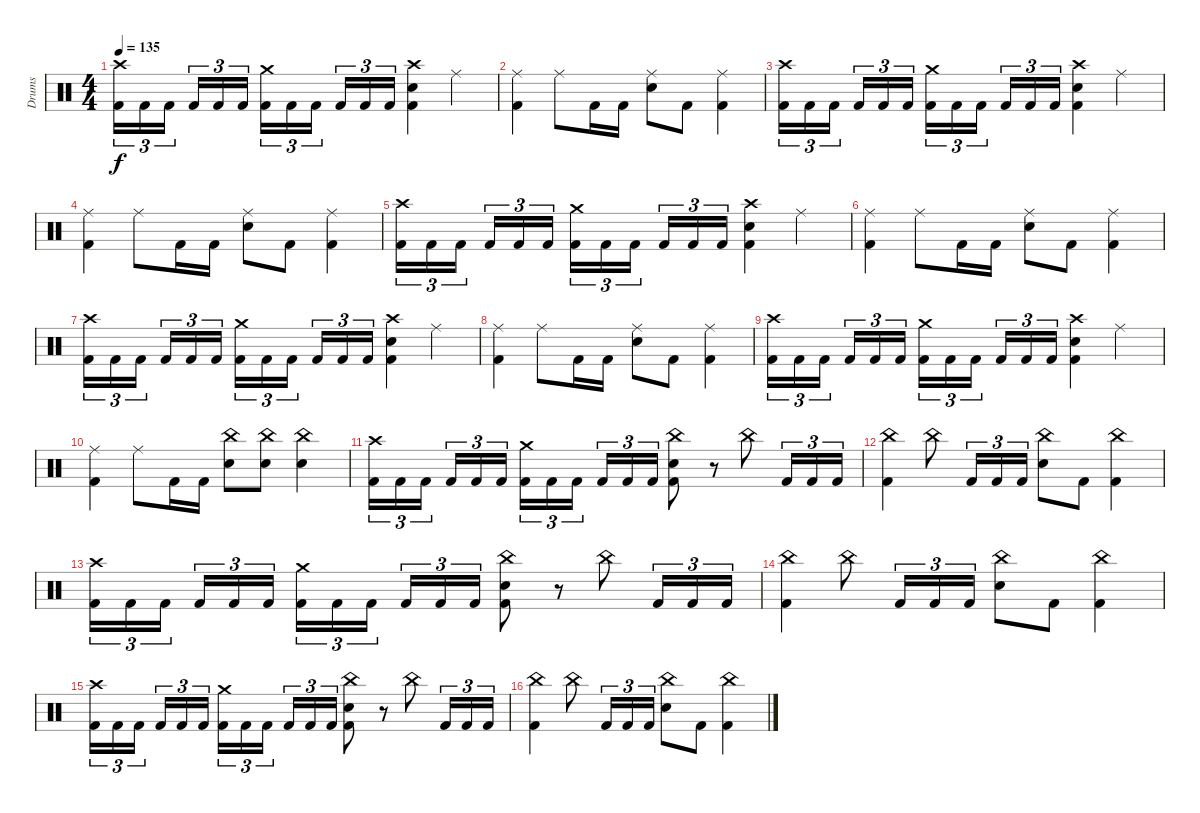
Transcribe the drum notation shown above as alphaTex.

\track ("Drums" "Drums") {instrument percussion}
\staff {score}
\articulation defaults
\ts (4 4)
\tempo 135
\clef neutral
\ks c
("Crash high (hit)" "Kick (hit) 2").16{tu (3 2) dy f} "Kick (hit) 2".16{tu (3 2)} "Kick (hit) 2".16{tu (3 2) beam splitsecondary} "Kick (hit) 2".16{tu (3 2)} "Kick (hit) 2".16{tu (3 2)} "Kick (hit) 2".16{tu (3 2)} ("Crash medium (hit)" "Kick (hit) 2").16{tu (3 2)} "Kick (hit) 2".16{tu (3 2)} "Kick (hit) 2".16{tu (3 2) beam splitsecondary} "Kick (hit) 2".16{tu (3 2)} "Kick (hit) 2".16{tu (3 2)} "Kick (hit) 2".16{tu (3 2)} ("Crash high (hit)" "Snare (hit) 2" "Kick (hit) 2").4 "Ride (middle)".4 |
("Ride (middle)" "Kick (hit) 2").4 "Ride (middle)".8 "Kick (hit) 2".16 "Kick (hit) 2".16 ("Ride (middle)" "Snare (hit) 2").8 "Kick (hit) 2".8 ("Ride (middle)" "Kick (hit) 2").4 |
("Crash high (hit)" "Kick (hit) 2").16{tu (3 2)} "Kick (hit) 2".16{tu (3 2)} "Kick (hit) 2".16{tu (3 2) beam splitsecondary} "Kick (hit) 2".16{tu (3 2)} "Kick (hit) 2".16{tu (3 2)} "Kick (hit) 2".16{tu (3 2)} ("Crash medium (hit)" "Kick (hit) 2").16{tu (3 2)} "Kick (hit) 2".16{tu (3 2)} "Kick (hit) 2".16{tu (3 2) beam splitsecondary} "Kick (hit) 2".16{tu (3 2)} "Kick (hit) 2".16{tu (3 2)} "Kick (hit) 2".16{tu (3 2)} ("Crash high (hit)" "Snare (hit) 2" "Kick (hit) 2").4 "Ride (middle)".4 |
("Ride (middle)" "Kick (hit) 2").4 "Ride (middle)".8 "Kick (hit) 2".16 "Kick (hit) 2".16 ("Ride (middle)" "Snare (hit) 2").8 "Kick (hit) 2".8 ("Ride (middle)" "Kick (hit) 2").4 |
("Crash high (hit)" "Kick (hit) 2").16{tu (3 2)} "Kick (hit) 2".16{tu (3 2)} "Kick (hit) 2".16{tu (3 2) beam splitsecondary} "Kick (hit) 2".16{tu (3 2)} "Kick (hit) 2".16{tu (3 2)} "Kick (hit) 2".16{tu (3 2)} ("Crash medium (hit)" "Kick (hit) 2").16{tu (3 2)} "Kick (hit) 2".16{tu (3 2)} "Kick (hit) 2".16{tu (3 2) beam splitsecondary} "Kick (hit) 2".16{tu (3 2)} "Kick (hit) 2".16{tu (3 2)} "Kick (hit) 2".16{tu (3 2)} ("Crash high (hit)" "Snare (hit) 2" "Kick (hit) 2").4 "Ride (middle)".4 |
("Ride (middle)" "Kick (hit) 2").4 "Ride (middle)".8 "Kick (hit) 2".16 "Kick (hit) 2".16 ("Ride (middle)" "Snare (hit) 2").8 "Kick (hit) 2".8 ("Ride (middle)" "Kick (hit) 2").4 |
("Crash high (hit)" "Kick (hit) 2").16{tu (3 2)} "Kick (hit) 2".16{tu (3 2)} "Kick (hit) 2".16{tu (3 2) beam splitsecondary} "Kick (hit) 2".16{tu (3 2)} "Kick (hit) 2".16{tu (3 2)} "Kick (hit) 2".16{tu (3 2)} ("Crash medium (hit)" "Kick (hit) 2").16{tu (3 2)} "Kick (hit) 2".16{tu (3 2)} "Kick (hit) 2".16{tu (3 2) beam splitsecondary} "Kick (hit) 2".16{tu (3 2)} "Kick (hit) 2".16{tu (3 2)} "Kick (hit) 2".16{tu (3 2)} ("Crash high (hit)" "Snare (hit) 2" "Kick (hit) 2").4 "Ride (middle)".4 |
("Ride (middle)" "Kick (hit) 2").4 "Ride (middle)".8 "Kick (hit) 2".16 "Kick (hit) 2".16 ("Ride (middle)" "Snare (hit) 2").8 "Kick (hit) 2".8 ("Ride (middle)" "Kick (hit) 2").4 |
("Crash high (hit)" "Kick (hit) 2").16{tu (3 2)} "Kick (hit) 2".16{tu (3 2)} "Kick (hit) 2".16{tu (3 2) beam splitsecondary} "Kick (hit) 2".16{tu (3 2)} "Kick (hit) 2".16{tu (3 2)} "Kick (hit) 2".16{tu (3 2)} ("Crash medium (hit)" "Kick (hit) 2").16{tu (3 2)} "Kick (hit) 2".16{tu (3 2)} "Kick (hit) 2".16{tu (3 2) beam splitsecondary} "Kick (hit) 2".16{tu (3 2)} "Kick (hit) 2".16{tu (3 2)} "Kick (hit) 2".16{tu (3 2)} ("Crash high (hit)" "Snare (hit) 2" "Kick (hit) 2").4 "Ride (middle)".4 |
("Ride (middle)" "Kick (hit) 2").4 "Ride (middle)".8 "Kick (hit) 2".16 "Kick (hit) 2".16 ("China (hit)" "Snare (hit) 2").8 ("China (hit)" "Snare (hit) 2").8 ("China (hit)" "Snare (hit) 2").4 |
("Crash high (hit)" "Kick (hit) 2").16{tu (3 2)} "Kick (hit) 2".16{tu (3 2)} "Kick (hit) 2".16{tu (3 2) beam splitsecondary} "Kick (hit) 2".16{tu (3 2)} "Kick (hit) 2".16{tu (3 2)} "Kick (hit) 2".16{tu (3 2)} ("Crash medium (hit)" "Kick (hit) 2").16{tu (3 2)} "Kick (hit) 2".16{tu (3 2)} "Kick (hit) 2".16{tu (3 2) beam splitsecondary} "Kick (hit) 2".16{tu (3 2)} "Kick (hit) 2".16{tu (3 2)} "Kick (hit) 2".16{tu (3 2)} ("China (hit)" "Snare (hit) 2" "Kick (hit) 2").8 r.8 "China (hit)".8 "Kick (hit) 2".16{tu (3 2)} "Kick (hit) 2".16{tu (3 2)} "Kick (hit) 2".16{tu (3 2)} |
("China (hit)" "Kick (hit) 2").4 "China (hit)".8 "Kick (hit) 2".16{tu (3 2)} "Kick (hit) 2".16{tu (3 2)} "Kick (hit) 2".16{tu (3 2)} ("China (hit)" "Snare (hit) 2").8 "Kick (hit) 2".8 ("China (hit)" "Kick (hit) 2").4 |
("Crash high (hit)" "Kick (hit) 2").16{tu (3 2)} "Kick (hit) 2".16{tu (3 2)} "Kick (hit) 2".16{tu (3 2) beam splitsecondary} "Kick (hit) 2".16{tu (3 2)} "Kick (hit) 2".16{tu (3 2)} "Kick (hit) 2".16{tu (3 2)} ("Crash medium (hit)" "Kick (hit) 2").16{tu (3 2)} "Kick (hit) 2".16{tu (3 2)} "Kick (hit) 2".16{tu (3 2) beam splitsecondary} "Kick (hit) 2".16{tu (3 2)} "Kick (hit) 2".16{tu (3 2)} "Kick (hit) 2".16{tu (3 2)} ("China (hit)" "Snare (hit) 2" "Kick (hit) 2").8 r.8 "China (hit)".8 "Kick (hit) 2".16{tu (3 2)} "Kick (hit) 2".16{tu (3 2)} "Kick (hit) 2".16{tu (3 2)} |
("China (hit)" "Kick (hit) 2").4 "China (hit)".8 "Kick (hit) 2".16{tu (3 2)} "Kick (hit) 2".16{tu (3 2)} "Kick (hit) 2".16{tu (3 2)} ("China (hit)" "Snare (hit) 2").8 "Kick (hit) 2".8 ("China (hit)" "Kick (hit) 2").4 |
("Crash high (hit)" "Kick (hit) 2").16{tu (3 2)} "Kick (hit) 2".16{tu (3 2)} "Kick (hit) 2".16{tu (3 2) beam splitsecondary} "Kick (hit) 2".16{tu (3 2)} "Kick (hit) 2".16{tu (3 2)} "Kick (hit) 2".16{tu (3 2)} ("Crash medium (hit)" "Kick (hit) 2").16{tu (3 2)} "Kick (hit) 2".16{tu (3 2)} "Kick (hit) 2".16{tu (3 2) beam splitsecondary} "Kick (hit) 2".16{tu (3 2)} "Kick (hit) 2".16{tu (3 2)} "Kick (hit) 2".16{tu (3 2)} ("China (hit)" "Snare (hit) 2" "Kick (hit) 2").8 r.8 "China (hit)".8 "Kick (hit) 2".16{tu (3 2)} "Kick (hit) 2".16{tu (3 2)} "Kick (hit) 2".16{tu (3 2)} |
("China (hit)" "Kick (hit) 2").4 "China (hit)".8 "Kick (hit) 2".16{tu (3 2)} "Kick (hit) 2".16{tu (3 2)} "Kick (hit) 2".16{tu (3 2)} ("China (hit)" "Snare (hit) 2").8 "Kick (hit) 2".8 ("China (hit)" "Kick (hit) 2").4
